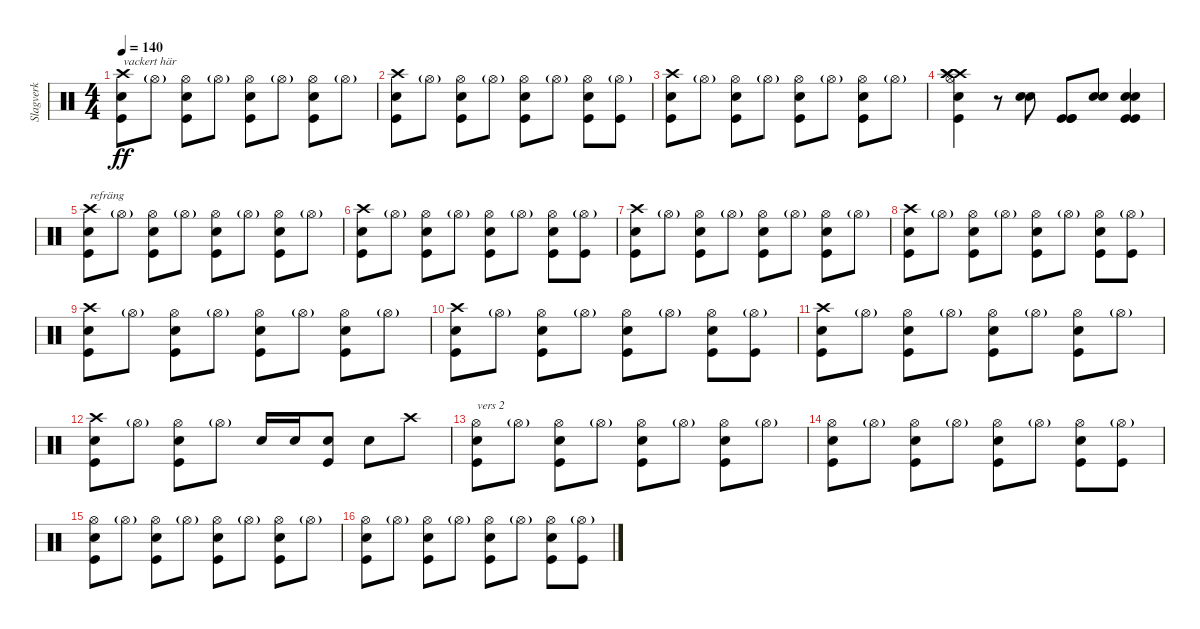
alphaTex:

\track ("Slagverk" "Slagverk") {instrument percussion}
\staff {score}
\articulation defaults
\ts (4 4)
\tempo 140
\clef neutral
\ks c
("Crash high (hit)" "Kick (hit)" "Snare (hit) 2").8{txt "vackert här" dy ff} "Hi-Hat (open)"{g}.8 ("Hi-Hat (open)" "Kick (hit)" "Snare (hit) 2").8 "Hi-Hat (open)"{g}.8 ("Hi-Hat (open)" "Kick (hit)" "Snare (hit) 2").8 "Hi-Hat (open)"{g}.8 ("Hi-Hat (open)" "Kick (hit)" "Snare (hit) 2").8 "Hi-Hat (open)"{g}.8 |
("Crash high (hit)" "Kick (hit)" "Snare (hit) 2").8 "Hi-Hat (open)"{g}.8 ("Hi-Hat (open)" "Kick (hit)" "Snare (hit) 2").8 "Hi-Hat (open)"{g}.8 ("Hi-Hat (open)" "Kick (hit)" "Snare (hit) 2").8 "Hi-Hat (open)"{g}.8 ("Hi-Hat (open)" "Kick (hit)" "Snare (hit) 2").8 ("Hi-Hat (open)"{g} "Kick (hit)").8 |
("Crash high (hit)" "Kick (hit)" "Snare (hit) 2").8 "Hi-Hat (open)"{g}.8 ("Hi-Hat (open)" "Kick (hit)" "Snare (hit) 2").8 "Hi-Hat (open)"{g}.8 ("Hi-Hat (open)" "Kick (hit)" "Snare (hit) 2").8 "Hi-Hat (open)"{g}.8 ("Hi-Hat (open)" "Kick (hit)" "Snare (hit) 2").8 "Hi-Hat (open)"{g}.8 |
("Crash high (hit)" "Kick (hit)" "Snare (hit) 2" "Hi-Hat (open)" "Crash high (hit)" "Crash high (hit)").4 r.8 ("Snare (hit) 2" "Snare (hit) 2").8 ("Kick (hit)" "Kick (hit)" "Kick (hit)").8 ("Snare (hit) 2" "Snare (hit) 2").8 ("Kick (hit)" "Snare (hit) 2" "Kick (hit)" "Snare (hit) 2").4 |
("Crash high (hit)" "Kick (hit)" "Snare (hit) 2").8{txt "refräng"} "Hi-Hat (open)"{g}.8 ("Hi-Hat (open)" "Kick (hit)" "Snare (hit) 2").8 "Hi-Hat (open)"{g}.8 ("Hi-Hat (open)" "Kick (hit)" "Snare (hit) 2").8 "Hi-Hat (open)"{g}.8 ("Hi-Hat (open)" "Kick (hit)" "Snare (hit) 2").8 "Hi-Hat (open)"{g}.8 |
("Crash high (hit)" "Kick (hit)" "Snare (hit) 2").8 "Hi-Hat (open)"{g}.8 ("Hi-Hat (open)" "Kick (hit)" "Snare (hit) 2").8 "Hi-Hat (open)"{g}.8 ("Hi-Hat (open)" "Kick (hit)" "Snare (hit) 2").8 "Hi-Hat (open)"{g}.8 ("Hi-Hat (open)" "Kick (hit)" "Snare (hit) 2").8 ("Hi-Hat (open)"{g} "Kick (hit)").8 |
("Crash high (hit)" "Kick (hit)" "Snare (hit) 2").8 "Hi-Hat (open)"{g}.8 ("Hi-Hat (open)" "Kick (hit)" "Snare (hit) 2").8 "Hi-Hat (open)"{g}.8 ("Hi-Hat (open)" "Kick (hit)" "Snare (hit) 2").8 "Hi-Hat (open)"{g}.8 ("Hi-Hat (open)" "Kick (hit)" "Snare (hit) 2").8 "Hi-Hat (open)"{g}.8 |
("Crash high (hit)" "Kick (hit)" "Snare (hit) 2").8 "Hi-Hat (open)"{g}.8 ("Hi-Hat (open)" "Kick (hit)" "Snare (hit) 2").8 "Hi-Hat (open)"{g}.8 ("Hi-Hat (open)" "Kick (hit)" "Snare (hit) 2").8 "Hi-Hat (open)"{g}.8 ("Hi-Hat (open)" "Kick (hit)" "Snare (hit) 2").8 ("Hi-Hat (open)"{g} "Kick (hit)").8 |
("Crash high (hit)" "Kick (hit)" "Snare (hit) 2").8 "Hi-Hat (open)"{g}.8 ("Hi-Hat (open)" "Kick (hit)" "Snare (hit) 2").8 "Hi-Hat (open)"{g}.8 ("Hi-Hat (open)" "Kick (hit)" "Snare (hit) 2").8 "Hi-Hat (open)"{g}.8 ("Hi-Hat (open)" "Kick (hit)" "Snare (hit) 2").8 "Hi-Hat (open)"{g}.8 |
("Crash high (hit)" "Kick (hit)" "Snare (hit) 2").8 "Hi-Hat (open)"{g}.8 ("Hi-Hat (open)" "Kick (hit)" "Snare (hit) 2").8 "Hi-Hat (open)"{g}.8 ("Hi-Hat (open)" "Kick (hit)" "Snare (hit) 2").8 "Hi-Hat (open)"{g}.8 ("Hi-Hat (open)" "Kick (hit)" "Snare (hit) 2").8 ("Hi-Hat (open)"{g} "Kick (hit)").8 |
("Crash high (hit)" "Kick (hit)" "Snare (hit) 2").8 "Hi-Hat (open)"{g}.8 ("Hi-Hat (open)" "Kick (hit)" "Snare (hit) 2").8 "Hi-Hat (open)"{g}.8 ("Hi-Hat (open)" "Kick (hit)" "Snare (hit) 2").8 "Hi-Hat (open)"{g}.8 ("Hi-Hat (open)" "Kick (hit)" "Snare (hit) 2").8 "Hi-Hat (open)"{g}.8 |
("Crash high (hit)" "Kick (hit)" "Snare (hit) 2").8 "Hi-Hat (open)"{g}.8 ("Hi-Hat (open)" "Kick (hit)" "Snare (hit) 2").8 "Hi-Hat (open)"{g}.8 "Snare (hit) 2".16 "Snare (hit) 2".16 ("Snare (hit) 2" "Kick (hit)").8 "Snare (hit) 2".8 "Crash high (hit)".8 |
("Hi-Hat (open)" "Kick (hit)" "Snare (hit) 2").8{txt "vers 2"} "Hi-Hat (open)"{g}.8 ("Hi-Hat (open)" "Kick (hit)" "Snare (hit) 2").8 "Hi-Hat (open)"{g}.8 ("Hi-Hat (open)" "Kick (hit)" "Snare (hit) 2").8 "Hi-Hat (open)"{g}.8 ("Hi-Hat (open)" "Kick (hit)" "Snare (hit) 2").8 "Hi-Hat (open)"{g}.8 |
("Hi-Hat (open)" "Kick (hit)" "Snare (hit) 2").8 "Hi-Hat (open)"{g}.8 ("Hi-Hat (open)" "Kick (hit)" "Snare (hit) 2").8 "Hi-Hat (open)"{g}.8 ("Hi-Hat (open)" "Kick (hit)" "Snare (hit) 2").8 "Hi-Hat (open)"{g}.8 ("Hi-Hat (open)" "Kick (hit)" "Snare (hit) 2").8 ("Hi-Hat (open)"{g} "Kick (hit)").8 |
("Hi-Hat (open)" "Kick (hit)" "Snare (hit) 2").8 "Hi-Hat (open)"{g}.8 ("Hi-Hat (open)" "Kick (hit)" "Snare (hit) 2").8 "Hi-Hat (open)"{g}.8 ("Hi-Hat (open)" "Kick (hit)" "Snare (hit) 2").8 "Hi-Hat (open)"{g}.8 ("Hi-Hat (open)" "Kick (hit)" "Snare (hit) 2").8 "Hi-Hat (open)"{g}.8 |
("Hi-Hat (open)" "Kick (hit)" "Snare (hit) 2").8 "Hi-Hat (open)"{g}.8 ("Hi-Hat (open)" "Kick (hit)" "Snare (hit) 2").8 "Hi-Hat (open)"{g}.8 ("Hi-Hat (open)" "Kick (hit)" "Snare (hit) 2").8 "Hi-Hat (open)"{g}.8 ("Hi-Hat (open)" "Kick (hit)" "Snare (hit) 2").8 ("Hi-Hat (open)"{g} "Kick (hit)").8
